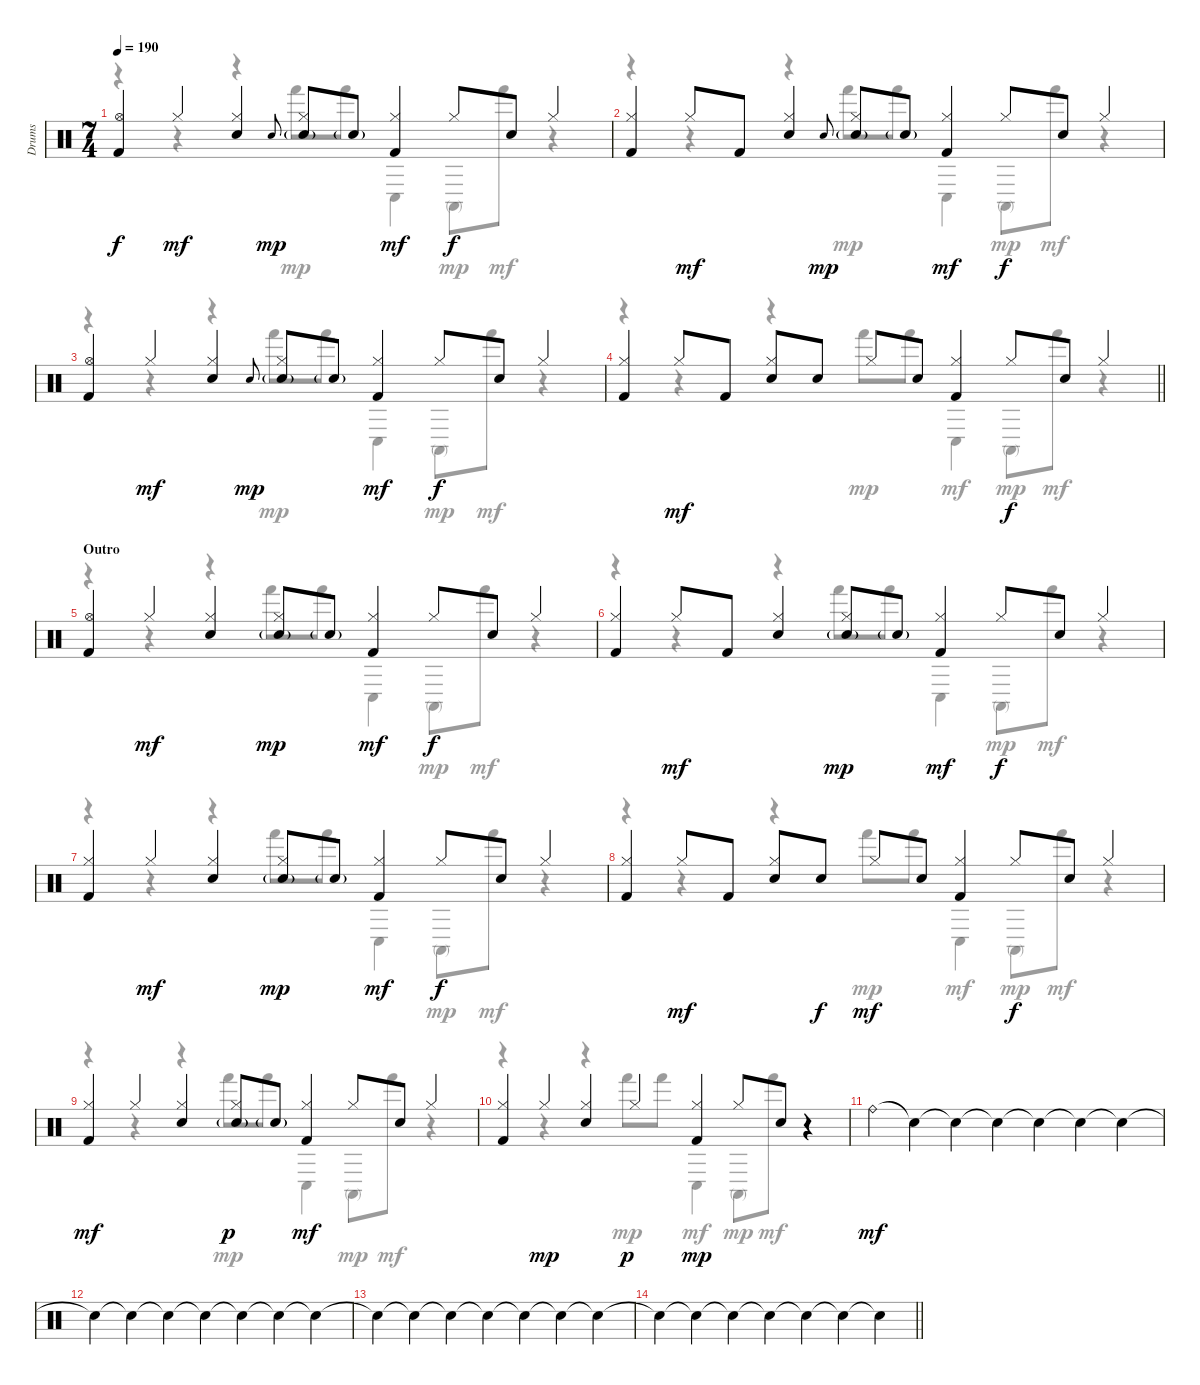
\track ("Drums" "Drums") {instrument percussion}
\staff {score}
\articulation defaults
\voice
\ts (7 4)
\tempo 190
\clef neutral
\ks c
("Hi-Hat (open)" "Kick (hit) 2").4{dy f} "Hi-Hat (closed)".4{dy mf} ("Hi-Hat (closed)" "Electric Snare (hit)").4 "Electric Snare (hit)".8{gr onbeat dy mp} ("Hi-Hat (closed)" "Electric Snare (hit)"{g}).8 "Electric Snare (hit)"{g}.8 ("Hi-Hat (closed)" "Kick (hit) 2").4{dy mf} "Hi-Hat (closed)".8{dy f} "Electric Snare (hit)".8 "Hi-Hat (closed)".4 |
("Hi-Hat (closed)" "Kick (hit) 2").4 "Hi-Hat (closed)".8{dy mf} "Kick (hit) 2".8 ("Hi-Hat (closed)" "Electric Snare (hit)").4 "Electric Snare (hit)".8{gr onbeat dy mp} ("Hi-Hat (closed)" "Electric Snare (hit)"{g}).8 "Electric Snare (hit)"{g}.8 ("Hi-Hat (closed)" "Kick (hit) 2").4{dy mf} "Hi-Hat (closed)".8{dy f} "Electric Snare (hit)".8 "Hi-Hat (closed)".4 |
("Hi-Hat (open)" "Kick (hit) 2").4 "Hi-Hat (closed)".4{dy mf} ("Hi-Hat (closed)" "Electric Snare (hit)").4 "Electric Snare (hit)".8{gr onbeat dy mp} ("Hi-Hat (closed)" "Electric Snare (hit)"{g}).8 "Electric Snare (hit)"{g}.8 ("Hi-Hat (closed)" "Kick (hit) 2").4{dy mf} "Hi-Hat (closed)".8{dy f} "Electric Snare (hit)".8 "Hi-Hat (closed)".4 |
\barLineRight lightlight
("Hi-Hat (closed)" "Kick (hit) 2").4 "Hi-Hat (closed)".8{dy mf} "Kick (hit) 2".8 ("Hi-Hat (closed)" "Electric Snare (hit)").8 "Electric Snare (hit)".8 "Hi-Hat (closed)".8 "Electric Snare (hit)".8 ("Hi-Hat (closed)" "Kick (hit) 2").4 "Hi-Hat (closed)".8{dy f} "Electric Snare (hit)".8 "Hi-Hat (closed)".4 |
\section ("" "Outro")
("Hi-Hat (open)" "Kick (hit) 2").4 "Hi-Hat (closed)".4{dy mf} ("Hi-Hat (closed)" "Electric Snare (hit)").4 ("Hi-Hat (closed)" "Electric Snare (hit)"{g}).8{dy mp} "Electric Snare (hit)"{g}.8 ("Hi-Hat (closed)" "Kick (hit) 2").4{dy mf} "Hi-Hat (closed)".8{dy f} "Electric Snare (hit)".8 "Hi-Hat (closed)".4 |
("Hi-Hat (closed)" "Kick (hit) 2").4 "Hi-Hat (closed)".8{dy mf} "Kick (hit) 2".8 ("Hi-Hat (closed)" "Electric Snare (hit)").4 ("Hi-Hat (closed)" "Electric Snare (hit)"{g}).8{dy mp} "Electric Snare (hit)"{g}.8 ("Hi-Hat (closed)" "Kick (hit) 2").4{dy mf} "Hi-Hat (closed)".8{dy f} "Electric Snare (hit)".8 "Hi-Hat (closed)".4 |
("Hi-Hat (closed)" "Kick (hit) 2").4 "Hi-Hat (closed)".4{dy mf} ("Hi-Hat (closed)" "Electric Snare (hit)").4 ("Hi-Hat (closed)" "Electric Snare (hit)"{g}).8{dy mp} "Electric Snare (hit)"{g}.8 ("Hi-Hat (closed)" "Kick (hit) 2").4{dy mf} "Hi-Hat (closed)".8{dy f} "Electric Snare (hit)".8 "Hi-Hat (closed)".4 |
("Hi-Hat (closed)" "Kick (hit) 2").4 "Hi-Hat (closed)".8{dy mf} "Kick (hit) 2".8 ("Hi-Hat (closed)" "Electric Snare (hit)").8 "Electric Snare (hit)".8{dy f} "Hi-Hat (closed)".8{dy mf} "Electric Snare (hit)".8 ("Hi-Hat (closed)" "Kick (hit) 2").4 "Hi-Hat (closed)".8{dy f} "Electric Snare (hit)".8 "Hi-Hat (closed)".4 |
("Hi-Hat (closed)" "Kick (hit) 2").4{dy mf} "Hi-Hat (closed)".4 ("Hi-Hat (closed)" "Electric Snare (hit)").4 ("Hi-Hat (closed)" "Electric Snare (hit)"{g}).8{dy p} "Electric Snare (hit)"{g}.8 ("Hi-Hat (closed)" "Kick (hit) 2").4{dy mf} "Hi-Hat (closed)".8 "Electric Snare (hit)".8 "Hi-Hat (closed)".4 |
("Hi-Hat (closed)" "Kick (hit) 2").4 "Hi-Hat (closed)".4{dy mp} ("Hi-Hat (closed)" "Electric Snare (hit)").4 "Hi-Hat (closed)".4{dy p} ("Hi-Hat (closed)" "Kick (hit) 2").4{dy mp} "Hi-Hat (closed)".8 "Electric Snare (hit)".8 r.4 |
"Ride (bell)".4{dy mf} "Snare (hit)"{t}.4 "Snare (hit)"{t}.4 "Snare (hit)"{t}.4 "Snare (hit)"{t}.4 "Snare (hit)"{t}.4 "Snare (hit)"{t}.4 |
"Snare (hit)"{t}.4 "Snare (hit)"{t}.4 "Snare (hit)"{t}.4 "Snare (hit)"{t}.4 "Snare (hit)"{t}.4 "Snare (hit)"{t}.4 "Snare (hit)"{t}.4 |
"Snare (hit)"{t}.4 "Snare (hit)"{t}.4 "Snare (hit)"{t}.4 "Snare (hit)"{t}.4 "Snare (hit)"{t}.4 "Snare (hit)"{t}.4 "Snare (hit)"{t}.4 |
\barLineRight lightlight "Snare (hit)"{t}.4 "Snare (hit)"{t}.4 "Snare (hit)"{t}.4 "Snare (hit)"{t}.4 "Snare (hit)"{t}.4 "Snare (hit)"{t}.4 "Snare (hit)"{t}.4
\voice
\clef neutral
\ottava regular
\simile none
\ks c
r.4{dy mf} r.4 r.4 "Hand (hit)".8{dy mp} "Hand (hit)".8 "Conga low (hit)".4{dy mf} "Conga high (mute)".8{dy mp} "Hand (hit)".8{dy mf} r.4 |
r.4 r.4 r.4 "Hand (hit)".8{dy mp} "Hand (hit)".8 "Conga low (hit)".4{dy mf} "Conga high (mute)".8{dy mp} "Hand (hit)".8{dy mf} r.4 |
r.4 r.4 r.4 "Hand (hit)".8{dy mp} "Hand (hit)".8 "Conga low (hit)".4{dy mf} "Conga high (mute)".8{dy mp} "Hand (hit)".8{dy mf} r.4 |
\barLineRight lightlight
r.4 r.4 r.4 "Hand (hit)".8{dy mp} "Hand (hit)".8 "Conga low (hit)".4{dy mf} "Conga high (mute)".8{dy mp} "Hand (hit)".8{dy mf} r.4 |
r.4 r.4 r.4 "Hand (hit)".8{dy mp} "Hand (hit)".8 "Conga low (hit)".4{dy mf} "Conga high (mute)".8{dy mp} "Hand (hit)".8{dy mf} r.4 |
r.4 r.4 r.4 "Hand (hit)".8{dy mp} "Hand (hit)".8 "Conga low (hit)".4{dy mf} "Conga high (mute)".8{dy mp} "Hand (hit)".8{dy mf} r.4 |
r.4 r.4 r.4 "Hand (hit)".8{dy mp} "Hand (hit)".8 "Conga low (hit)".4{dy mf} "Conga high (mute)".8{dy mp} "Hand (hit)".8{dy mf} r.4 |
r.4 r.4 r.4 "Hand (hit)".8{dy mp} "Hand (hit)".8 "Conga low (hit)".4{dy mf} "Conga high (mute)".8{dy mp} "Hand (hit)".8{dy mf} r.4 |
r.4 r.4 r.4 "Hand (hit)".8{dy mp} "Hand (hit)".8 "Conga low (hit)".4{dy mf} "Conga high (mute)".8{dy mp} "Hand (hit)".8{dy mf} r.4 |
r.4 r.4 r.4 "Hand (hit)".8{dy mp} "Hand (hit)".8 "Conga low (hit)".4{dy mf} "Conga high (mute)".8{dy mp} "Hand (hit)".8{dy mf} r.4 |
|
|
|
\barLineRight lightlight
